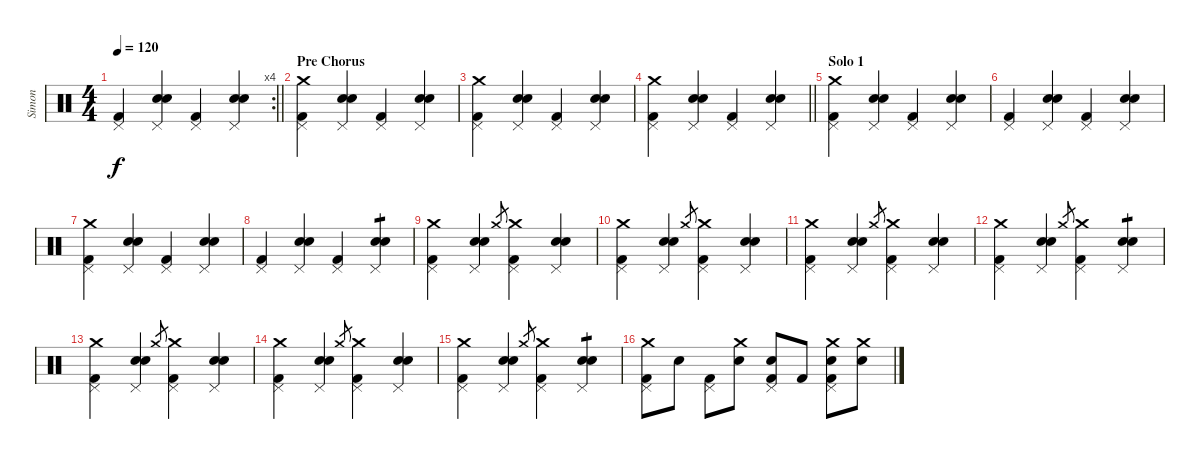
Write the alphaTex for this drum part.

\track ("Simon" "Simon") {instrument percussion}
\staff {score}
\articulation defaults
\rc 4
\ts (4 4)
\tempo 120
\clef neutral
\barLineRight lightlight
\ks c
("Kick (hit) 2" "Pedal Hi-Hat (hit)").4{dy f} ("Snare (hit) 2" "Electric Snare (hit)" "Pedal Hi-Hat (hit)").4 ("Kick (hit) 2" "Pedal Hi-Hat (hit)").4 ("Snare (hit) 2" "Electric Snare (hit)" "Pedal Hi-Hat (hit)").4 |
\section ("" "Pre Chorus")
("Kick (hit) 2" "Crash medium (hit)" "Pedal Hi-Hat (hit)").4 ("Snare (hit) 2" "Electric Snare (hit)" "Pedal Hi-Hat (hit)").4 ("Kick (hit) 2" "Pedal Hi-Hat (hit)").4 ("Snare (hit) 2" "Electric Snare (hit)" "Pedal Hi-Hat (hit)").4 |
("Kick (hit) 2" "Crash medium (hit)" "Pedal Hi-Hat (hit)").4 ("Snare (hit) 2" "Electric Snare (hit)" "Pedal Hi-Hat (hit)").4 ("Kick (hit) 2" "Pedal Hi-Hat (hit)").4 ("Snare (hit) 2" "Electric Snare (hit)" "Pedal Hi-Hat (hit)").4 |
\barLineRight lightlight
("Kick (hit) 2" "Crash medium (hit)" "Pedal Hi-Hat (hit)").4 ("Snare (hit) 2" "Electric Snare (hit)" "Pedal Hi-Hat (hit)").4 ("Kick (hit) 2" "Pedal Hi-Hat (hit)").4 ("Snare (hit) 2" "Electric Snare (hit)" "Pedal Hi-Hat (hit)").4 |
\section ("" "Solo 1")
("Kick (hit) 2" "Crash medium (hit)" "Pedal Hi-Hat (hit)").4 ("Snare (hit) 2" "Electric Snare (hit)" "Pedal Hi-Hat (hit)").4 ("Kick (hit) 2" "Pedal Hi-Hat (hit)").4 ("Snare (hit) 2" "Electric Snare (hit)" "Pedal Hi-Hat (hit)").4 |
("Kick (hit) 2" "Pedal Hi-Hat (hit)").4 ("Snare (hit) 2" "Electric Snare (hit)" "Pedal Hi-Hat (hit)").4 ("Kick (hit) 2" "Pedal Hi-Hat (hit)").4 ("Snare (hit) 2" "Electric Snare (hit)" "Pedal Hi-Hat (hit)").4 |
("Kick (hit) 2" "Crash medium (hit)" "Pedal Hi-Hat (hit)").4 ("Snare (hit) 2" "Electric Snare (hit)" "Pedal Hi-Hat (hit)").4 ("Kick (hit) 2" "Pedal Hi-Hat (hit)").4 ("Snare (hit) 2" "Electric Snare (hit)" "Pedal Hi-Hat (hit)").4 |
("Kick (hit) 2" "Pedal Hi-Hat (hit)").4 ("Snare (hit) 2" "Electric Snare (hit)" "Pedal Hi-Hat (hit)").4 ("Kick (hit) 2" "Pedal Hi-Hat (hit)").4 ("Snare (hit) 2" "Electric Snare (hit)" "Pedal Hi-Hat (hit)").4{tp 1} |
("Kick (hit) 2" "Crash medium (hit)" "Pedal Hi-Hat (hit)").4 ("Snare (hit) 2" "Electric Snare (hit)" "Pedal Hi-Hat (hit)").4 "Crash medium (hit)".8{gr} ("Kick (hit) 2" "Crash medium (hit)" "Pedal Hi-Hat (hit)").4 ("Snare (hit) 2" "Electric Snare (hit)" "Pedal Hi-Hat (hit)").4 |
("Kick (hit) 2" "Crash medium (hit)" "Pedal Hi-Hat (hit)").4 ("Snare (hit) 2" "Electric Snare (hit)" "Pedal Hi-Hat (hit)").4 "Crash medium (hit)".8{gr} ("Kick (hit) 2" "Crash medium (hit)" "Pedal Hi-Hat (hit)").4 ("Snare (hit) 2" "Electric Snare (hit)" "Pedal Hi-Hat (hit)").4 |
("Kick (hit) 2" "Crash medium (hit)" "Pedal Hi-Hat (hit)").4 ("Snare (hit) 2" "Electric Snare (hit)" "Pedal Hi-Hat (hit)").4 "Crash medium (hit)".8{gr} ("Kick (hit) 2" "Crash medium (hit)" "Pedal Hi-Hat (hit)").4 ("Snare (hit) 2" "Electric Snare (hit)" "Pedal Hi-Hat (hit)").4 |
("Kick (hit) 2" "Crash medium (hit)" "Pedal Hi-Hat (hit)").4 ("Snare (hit) 2" "Electric Snare (hit)" "Pedal Hi-Hat (hit)").4 "Crash medium (hit)".8{gr} ("Kick (hit) 2" "Crash medium (hit)" "Pedal Hi-Hat (hit)").4 ("Snare (hit) 2" "Electric Snare (hit)" "Pedal Hi-Hat (hit)").4{tp 1} |
("Kick (hit) 2" "Crash medium (hit)" "Pedal Hi-Hat (hit)").4 ("Snare (hit) 2" "Electric Snare (hit)" "Pedal Hi-Hat (hit)").4 "Crash medium (hit)".8{gr} ("Kick (hit) 2" "Crash medium (hit)" "Pedal Hi-Hat (hit)").4 ("Snare (hit) 2" "Electric Snare (hit)" "Pedal Hi-Hat (hit)").4 |
("Kick (hit) 2" "Crash medium (hit)" "Pedal Hi-Hat (hit)").4 ("Snare (hit) 2" "Electric Snare (hit)" "Pedal Hi-Hat (hit)").4 "Crash medium (hit)".8{gr} ("Kick (hit) 2" "Crash medium (hit)" "Pedal Hi-Hat (hit)").4 ("Snare (hit) 2" "Electric Snare (hit)" "Pedal Hi-Hat (hit)").4 |
("Kick (hit) 2" "Crash medium (hit)" "Pedal Hi-Hat (hit)").4 ("Snare (hit) 2" "Electric Snare (hit)" "Pedal Hi-Hat (hit)").4 "Crash medium (hit)".8{gr} ("Kick (hit) 2" "Crash medium (hit)" "Pedal Hi-Hat (hit)").4 ("Snare (hit) 2" "Electric Snare (hit)" "Pedal Hi-Hat (hit)").4{tp 1} |
("Kick (hit) 2" "Crash medium (hit)" "Pedal Hi-Hat (hit)").8 "Electric Snare (hit)".8 ("Kick (hit) 2" "Pedal Hi-Hat (hit)").8 ("Electric Snare (hit)" "Crash medium (hit)").8 ("Kick (hit) 2" "Electric Snare (hit)" "Pedal Hi-Hat (hit)").8 "Kick (hit) 2".8 ("Kick (hit) 2" "Electric Snare (hit)" "Crash medium (hit)" "Pedal Hi-Hat (hit)").8 ("Electric Snare (hit)" "Crash medium (hit)").8
